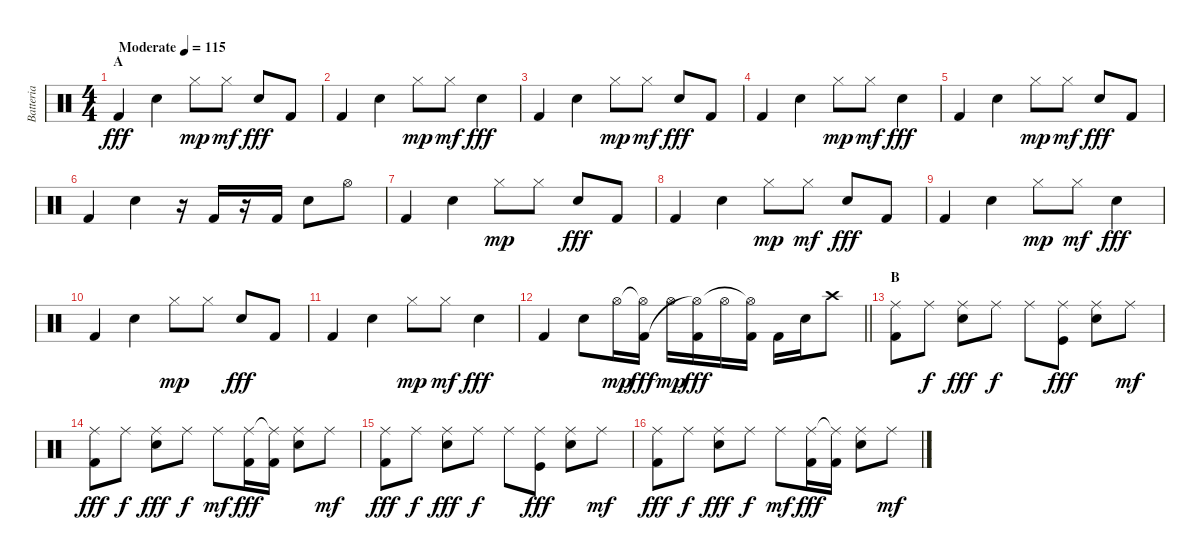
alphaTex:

\track ("Batteria" "Batteria") {instrument percussion}
\staff {score}
\articulation defaults
\ts (4 4)
\section ("" "A")
\tempo (115 "Moderate")
\clef neutral
\ks c "Kick (hit) 2".4{dy fff} "Snare (hit) 2".4 "Hi-Hat (closed)".8{dy mp} "Hi-Hat (closed)".8{dy mf} "Snare (hit) 2".8{dy fff} "Kick (hit) 2".8
|
"Kick (hit) 2".4 "Snare (hit) 2".4 "Hi-Hat (closed)".8{dy mp} "Hi-Hat (closed)".8{dy mf} "Snare (hit) 2".4{dy fff} |
"Kick (hit) 2".4 "Snare (hit) 2".4 "Hi-Hat (closed)".8{dy mp} "Hi-Hat (closed)".8{dy mf} "Snare (hit) 2".8{dy fff} "Kick (hit) 2".8 |
"Kick (hit) 2".4 "Snare (hit) 2".4 "Hi-Hat (closed)".8{dy mp} "Hi-Hat (closed)".8{dy mf} "Snare (hit) 2".4{dy fff} |
"Kick (hit) 2".4 "Snare (hit) 2".4 "Hi-Hat (closed)".8{dy mp} "Hi-Hat (closed)".8{dy mf} "Snare (hit) 2".8{dy fff} "Kick (hit) 2".8 |
"Kick (hit) 2".4 "Snare (hit) 2".4 r.16 "Kick (hit) 2".16 r.16 "Kick (hit) 2".16 "Snare (hit) 2".8 "Hi-Hat (open)".8 |
"Kick (hit) 2".4 "Snare (hit) 2".4 "Hi-Hat (closed)".8{dy mp} "Hi-Hat (closed)".8 "Snare (hit) 2".8{dy fff} "Kick (hit) 2".8 |
"Kick (hit) 2".4 "Snare (hit) 2".4 "Hi-Hat (closed)".8{dy mp} "Hi-Hat (closed)".8{dy mf} "Snare (hit) 2".8{dy fff} "Kick (hit) 2".8 |
"Kick (hit) 2".4 "Snare (hit) 2".4 "Hi-Hat (closed)".8{dy mp} "Hi-Hat (closed)".8{dy mf} "Snare (hit) 2".4{dy fff} |
"Kick (hit) 2".4 "Snare (hit) 2".4 "Hi-Hat (closed)".8{dy mp} "Hi-Hat (closed)".8 "Snare (hit) 2".8{dy fff} "Kick (hit) 2".8 |
"Kick (hit) 2".4 "Snare (hit) 2".4 "Hi-Hat (closed)".8{dy mp} "Hi-Hat (closed)".8{dy mf} "Snare (hit) 2".4{dy fff} |
\barLineRight lightlight "Kick (hit) 2".4 "Snare (hit) 2".8 "Hi-Hat (open)".16{dy mp}
("Hi-Hat (open)"{t} "Kick (hit) 2").16{dy fff} "Hi-Hat (open)".16{dy mp} ("Kick (hit) 2" "Hi-Hat (open)"{t}).16{dy fff} "Hi-Hat (open)".16 ("Kick (hit) 2" "Hi-Hat (open)"{t}).16 "Kick (hit) 2".16 "Snare (hit) 2".16 "Crash high (hit)".8 |
\section ("" "B")
("Ride (middle)" "Kick (hit) 2").8 "Ride (middle)".8{dy f} ("Ride (middle)" "Snare (hit) 2").8{dy fff} "Ride (middle)".8{dy f} "Ride (middle)".8 ("Ride (middle)" "Kick (hit)").8{dy fff} ("Ride (middle)" "Snare (hit) 2").8 "Ride (middle)".8{dy mf} |
("Ride (middle)" "Kick (hit) 2").8{dy fff} "Ride (middle)".8{dy f} ("Ride (middle)" "Snare (hit) 2").8{dy fff} "Ride (middle)".8{dy f} "Ride (middle)".8{dy mf} ("Ride (middle)" "Kick (hit) 2").16{dy fff} ("Ride (middle)"{t} "Kick (hit) 2").16 ("Ride (middle)" "Snare (hit) 2").8 "Ride (middle)".8{dy mf} |
("Ride (middle)" "Kick (hit) 2").8{dy fff} "Ride (middle)".8{dy f} ("Ride (middle)" "Snare (hit) 2").8{dy fff} "Ride (middle)".8{dy f} "Ride (middle)".8 ("Ride (middle)" "Kick (hit)").8{dy fff} ("Ride (middle)" "Snare (hit) 2").8 "Ride (middle)".8{dy mf} |
("Ride (middle)" "Kick (hit) 2").8{dy fff} "Ride (middle)".8{dy f} ("Ride (middle)" "Snare (hit) 2").8{dy fff} "Ride (middle)".8{dy f} "Ride (middle)".8{dy mf} ("Ride (middle)" "Kick (hit) 2").16{dy fff} ("Ride (middle)"{t} "Kick (hit) 2").16 ("Ride (middle)" "Snare (hit) 2").8 "Ride (middle)".8{dy mf}
